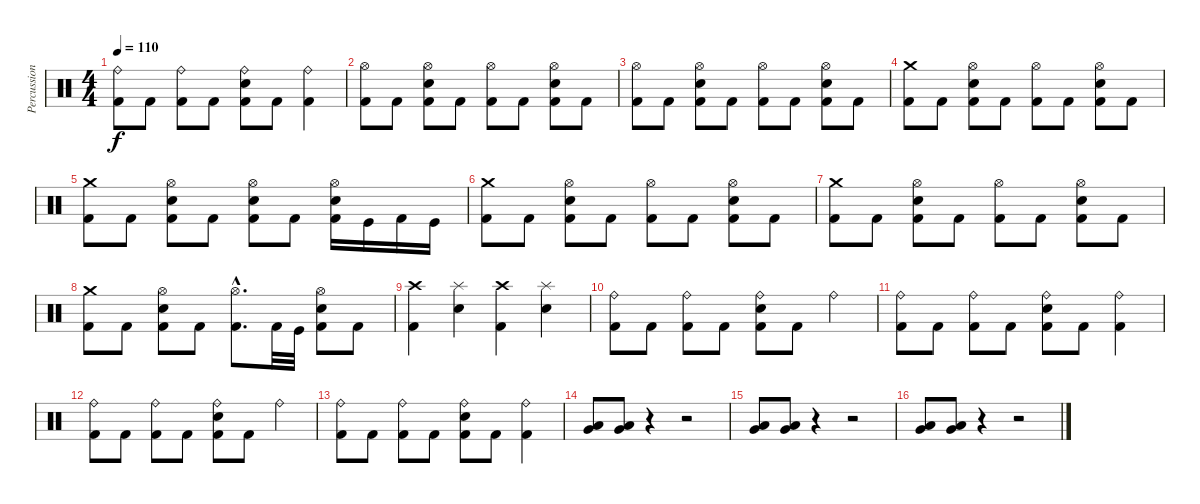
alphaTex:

\track ("Percussions" "Percussion") {instrument percussion}
\staff {score}
\articulation defaults
\ts (4 4)
\tempo 110
\clef neutral
\ks c
("Ride (bell)" "Kick (hit) 2").8{dy f} "Kick (hit) 2".8 ("Ride (bell)" "Kick (hit) 2").8 "Kick (hit) 2".8 ("Ride (bell)" "Electric Snare (hit)" "Kick (hit) 2").8 "Kick (hit) 2".8 ("Ride (bell)" "Kick (hit) 2").4 |
("Hi-Hat (open)" "Kick (hit) 2").8 "Kick (hit) 2".8 ("Hi-Hat (open)" "Electric Snare (hit)" "Kick (hit) 2").8 "Kick (hit) 2".8 ("Hi-Hat (open)" "Kick (hit) 2").8 "Kick (hit) 2".8 ("Hi-Hat (open)" "Electric Snare (hit)" "Kick (hit) 2").8 "Kick (hit) 2".8 |
("Hi-Hat (open)" "Kick (hit) 2").8 "Kick (hit) 2".8 ("Hi-Hat (open)" "Electric Snare (hit)" "Kick (hit) 2").8 "Kick (hit) 2".8 ("Hi-Hat (open)" "Kick (hit) 2").8 "Kick (hit) 2".8 ("Hi-Hat (open)" "Electric Snare (hit)" "Kick (hit) 2").8 "Kick (hit) 2".8 |
("Crash medium (hit)" "Kick (hit) 2").8 "Kick (hit) 2".8 ("Hi-Hat (open)" "Electric Snare (hit)" "Kick (hit) 2").8 "Kick (hit) 2".8 ("Hi-Hat (open)" "Kick (hit) 2").8 "Kick (hit) 2".8 ("Hi-Hat (open)" "Electric Snare (hit)" "Kick (hit) 2").8 "Kick (hit) 2".8 |
("Crash medium (hit)" "Kick (hit) 2").8 "Kick (hit) 2".8 ("Hi-Hat (open)" "Electric Snare (hit)" "Kick (hit) 2").8 "Kick (hit) 2".8 ("Hi-Hat (open)" "Electric Snare (hit)" "Kick (hit) 2").8 "Kick (hit) 2".8 ("Hi-Hat (open)" "Electric Snare (hit)" "Kick (hit) 2").16 "Kick (hit)".16 "Kick (hit) 2".16 "Kick (hit)".16 |
("Crash medium (hit)" "Kick (hit) 2").8 "Kick (hit) 2".8 ("Hi-Hat (open)" "Electric Snare (hit)" "Kick (hit) 2").8 "Kick (hit) 2".8 ("Hi-Hat (open)" "Kick (hit) 2").8 "Kick (hit) 2".8 ("Hi-Hat (open)" "Electric Snare (hit)" "Kick (hit) 2").8 "Kick (hit) 2".8 |
("Crash medium (hit)" "Kick (hit) 2").8 "Kick (hit) 2".8 ("Hi-Hat (open)" "Electric Snare (hit)" "Kick (hit) 2").8 "Kick (hit) 2".8 ("Hi-Hat (open)" "Kick (hit) 2").8 "Kick (hit) 2".8 ("Hi-Hat (open)" "Electric Snare (hit)" "Kick (hit) 2").8 "Kick (hit) 2".8 |
("Crash medium (hit)" "Kick (hit) 2").8 "Kick (hit) 2".8 ("Hi-Hat (open)" "Electric Snare (hit)" "Kick (hit) 2").8 "Kick (hit) 2".8 ("Hi-Hat (open)"{hac} "Kick (hit) 2"{hac}).8{d} "Kick (hit) 2".32 "Kick (hit)".32 ("Hi-Hat (open)" "Electric Snare (hit)" "Kick (hit) 2").8 "Kick (hit) 2".8 |
("Crash high (hit)" "Kick (hit) 2").4 ("Splash (hit)" "Electric Snare (hit)").4 ("Crash high (hit)" "Kick (hit) 2").4 ("Splash (hit)" "Electric Snare (hit)").4 |
("Ride (bell)" "Kick (hit) 2").8 "Kick (hit) 2".8 ("Ride (bell)" "Kick (hit) 2").8 "Kick (hit) 2".8 ("Ride (bell)" "Electric Snare (hit)" "Kick (hit) 2").8 "Kick (hit) 2".8 "Ride (bell)".4 |
("Ride (bell)" "Kick (hit) 2").8 "Kick (hit) 2".8 ("Ride (bell)" "Kick (hit) 2").8 "Kick (hit) 2".8 ("Ride (bell)" "Electric Snare (hit)" "Kick (hit) 2").8 "Kick (hit) 2".8 ("Ride (bell)" "Kick (hit) 2").4 |
("Ride (bell)" "Kick (hit) 2").8 "Kick (hit) 2".8 ("Ride (bell)" "Kick (hit) 2").8 "Kick (hit) 2".8 ("Ride (bell)" "Electric Snare (hit)" "Kick (hit) 2").8 "Kick (hit) 2".8 "Ride (bell)".4 |
("Ride (bell)" "Kick (hit) 2").8 "Kick (hit) 2".8 ("Ride (bell)" "Kick (hit) 2").8 "Kick (hit) 2".8 ("Ride (bell)" "Electric Snare (hit)" "Kick (hit) 2").8 "Kick (hit) 2".8 ("Ride (bell)" "Kick (hit) 2").4 |
("Low Floor Tom (hit)" "Very Low Tom (hit)").8 ("Low Floor Tom (hit)" "Very Low Tom (hit)").8 r.4 r.2 |
("Low Floor Tom (hit)" "Very Low Tom (hit)").8 ("Low Floor Tom (hit)" "Very Low Tom (hit)").8 r.4 r.2 |
("Low Floor Tom (hit)" "Very Low Tom (hit)").8 ("Low Floor Tom (hit)" "Very Low Tom (hit)").8 r.4 r.2
